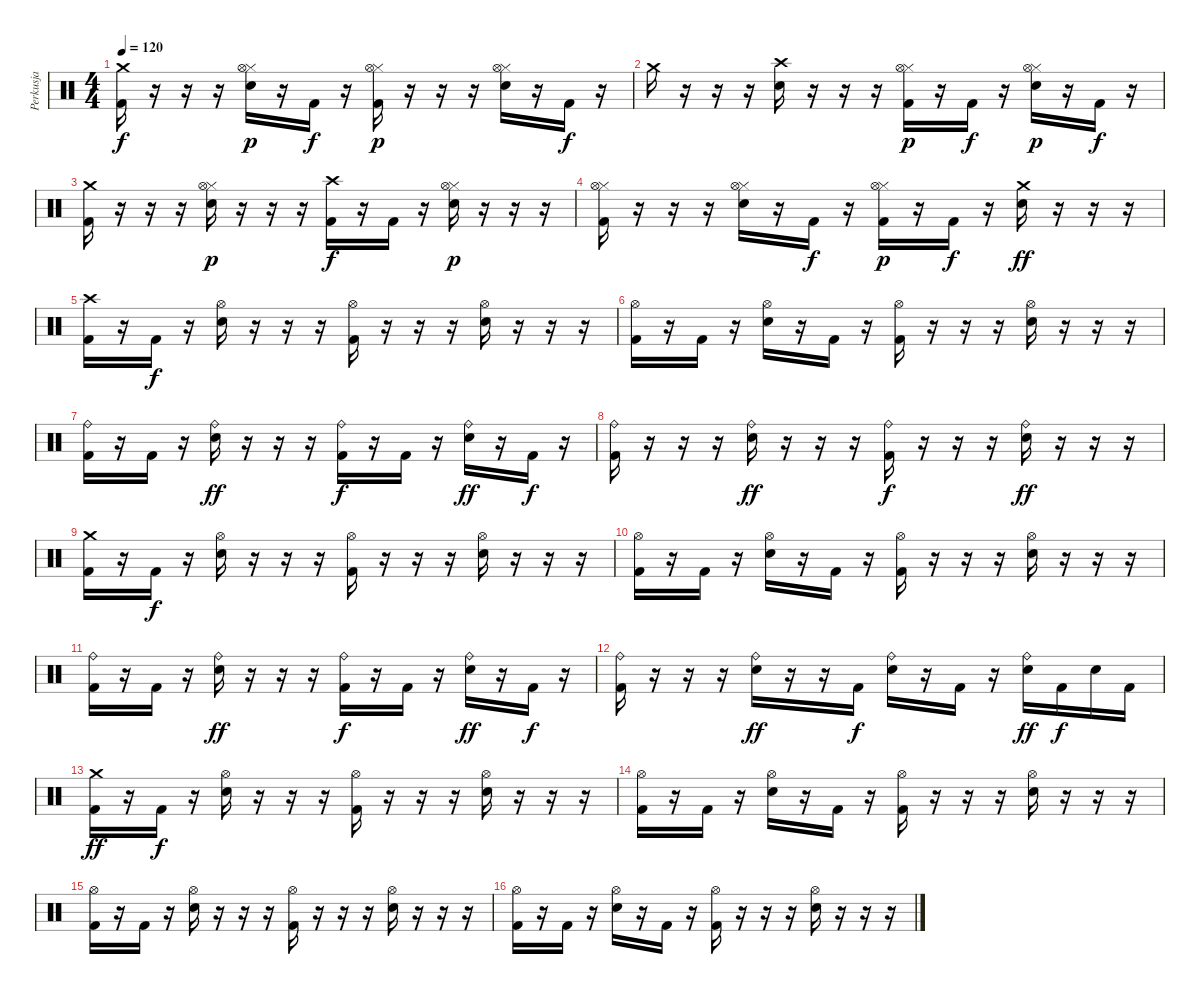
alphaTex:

\track ("Perkusja" "Perkusja") {instrument percussion}
\staff {score}
\articulation defaults
\ts (4 4)
\tempo 120
\clef neutral
\ks c
("Kick (hit) 2" "Crash medium (hit)").16{dy f} r.16 r.16 r.16 ("Electric Snare (hit)" "Hi-Hat (closed)" "Hi-Hat (open)").16{dy p} r.16 "Kick (hit) 2".16{dy f} r.16 ("Kick (hit) 2" "Hi-Hat (closed)" "Hi-Hat (open)").16{dy p} r.16 r.16 r.16 ("Electric Snare (hit)" "Hi-Hat (closed)" "Hi-Hat (open)").16 r.16 "Kick (hit) 2".16{dy f} r.16 |
"Crash medium (hit)".16 r.16 r.16 r.16 ("Electric Snare (hit)" "Crash high (hit)").16 r.16 r.16 r.16 ("Kick (hit) 2" "Hi-Hat (closed)" "Hi-Hat (open)").16{dy p} r.16 "Kick (hit) 2".16{dy f} r.16 ("Electric Snare (hit)" "Hi-Hat (closed)" "Hi-Hat (open)").16{dy p} r.16 "Kick (hit) 2".16{dy f} r.16 |
("Kick (hit) 2" "Crash medium (hit)").16 r.16 r.16 r.16 ("Electric Snare (hit)" "Hi-Hat (closed)" "Hi-Hat (open)").16{dy p} r.16 r.16 r.16 ("Kick (hit) 2" "Crash high (hit)").16{dy f} r.16 "Kick (hit) 2".16 r.16 ("Electric Snare (hit)" "Hi-Hat (closed)" "Hi-Hat (open)").16{dy p} r.16 r.16 r.16 |
("Kick (hit) 2" "Hi-Hat (closed)" "Hi-Hat (open)").16 r.16 r.16 r.16 ("Electric Snare (hit)" "Hi-Hat (closed)" "Hi-Hat (open)").16 r.16 "Kick (hit) 2".16{dy f} r.16 ("Kick (hit) 2" "Hi-Hat (closed)" "Hi-Hat (open)").16{dy p} r.16 "Kick (hit) 2".16{dy f} r.16 ("Electric Snare (hit)" "Crash medium (hit)").16{dy ff} r.16 r.16 r.16 |
("Kick (hit) 2" "Crash high (hit)").16 r.16 "Kick (hit) 2".16{dy f} r.16 ("Electric Snare (hit)" "Hi-Hat (open)").16 r.16 r.16 r.16 ("Kick (hit) 2" "Hi-Hat (open)").16 r.16 r.16 r.16 ("Electric Snare (hit)" "Hi-Hat (open)").16 r.16 r.16 r.16 |
("Kick (hit) 2" "Hi-Hat (open)").16 r.16 "Kick (hit) 2".16 r.16 ("Electric Snare (hit)" "Hi-Hat (open)").16 r.16 "Kick (hit) 2".16 r.16 ("Kick (hit) 2" "Hi-Hat (open)").16 r.16 r.16 r.16 ("Electric Snare (hit)" "Hi-Hat (open)").16 r.16 r.16 r.16 |
("Kick (hit) 2" "Ride (bell)").16 r.16 "Kick (hit) 2".16 r.16 ("Electric Snare (hit)" "Ride (bell)").16{dy ff} r.16 r.16 r.16 ("Kick (hit) 2" "Ride (bell)").16{dy f} r.16 "Kick (hit) 2".16 r.16 ("Electric Snare (hit)" "Ride (bell)").16{dy ff} r.16 "Kick (hit) 2".16{dy f} r.16 |
("Kick (hit) 2" "Ride (bell)").16 r.16 r.16 r.16 ("Electric Snare (hit)" "Ride (bell)").16{dy ff} r.16 r.16 r.16 ("Kick (hit) 2" "Ride (bell)").16{dy f} r.16 r.16 r.16 ("Electric Snare (hit)" "Ride (bell)").16{dy ff} r.16 r.16 r.16 |
("Kick (hit) 2" "Crash medium (hit)").16 r.16 "Kick (hit) 2".16{dy f} r.16 ("Electric Snare (hit)" "Hi-Hat (open)").16 r.16 r.16 r.16 ("Kick (hit) 2" "Hi-Hat (open)").16 r.16 r.16 r.16 ("Electric Snare (hit)" "Hi-Hat (open)").16 r.16 r.16 r.16 |
("Kick (hit) 2" "Hi-Hat (open)").16 r.16 "Kick (hit) 2".16 r.16 ("Electric Snare (hit)" "Hi-Hat (open)").16 r.16 "Kick (hit) 2".16 r.16 ("Kick (hit) 2" "Hi-Hat (open)").16 r.16 r.16 r.16 ("Electric Snare (hit)" "Hi-Hat (open)").16 r.16 r.16 r.16 |
("Kick (hit) 2" "Ride (bell)").16 r.16 "Kick (hit) 2".16 r.16 ("Electric Snare (hit)" "Ride (bell)").16{dy ff} r.16 r.16 r.16 ("Kick (hit) 2" "Ride (bell)").16{dy f} r.16 "Kick (hit) 2".16 r.16 ("Electric Snare (hit)" "Ride (bell)").16{dy ff} r.16 "Kick (hit) 2".16{dy f} r.16 |
("Kick (hit) 2" "Ride (bell)").16 r.16 r.16 r.16 ("Electric Snare (hit)" "Ride (bell)").16{dy ff} r.16 r.16 "Kick (hit) 2".16{dy f} ("Electric Snare (hit)" "Ride (bell)").16 r.16 "Kick (hit) 2".16 r.16 ("Electric Snare (hit)" "Ride (bell)").16{dy ff} "Kick (hit) 2".16{dy f} "Electric Snare (hit)".16 "Kick (hit) 2".16 |
("Kick (hit) 2" "Crash medium (hit)").16{dy ff} r.16 "Kick (hit) 2".16{dy f} r.16 ("Electric Snare (hit)" "Hi-Hat (open)").16 r.16 r.16 r.16 ("Kick (hit) 2" "Hi-Hat (open)").16 r.16 r.16 r.16 ("Electric Snare (hit)" "Hi-Hat (open)").16 r.16 r.16 r.16 |
("Kick (hit) 2" "Hi-Hat (open)").16 r.16 "Kick (hit) 2".16 r.16 ("Electric Snare (hit)" "Hi-Hat (open)").16 r.16 "Kick (hit) 2".16 r.16 ("Kick (hit) 2" "Hi-Hat (open)").16 r.16 r.16 r.16 ("Electric Snare (hit)" "Hi-Hat (open)").16 r.16 r.16 r.16 |
("Kick (hit) 2" "Hi-Hat (open)").16 r.16 "Kick (hit) 2".16 r.16 ("Electric Snare (hit)" "Hi-Hat (open)").16 r.16 r.16 r.16 ("Kick (hit) 2" "Hi-Hat (open)").16 r.16 r.16 r.16 ("Electric Snare (hit)" "Hi-Hat (open)").16 r.16 r.16 r.16 |
("Kick (hit) 2" "Hi-Hat (open)").16 r.16 "Kick (hit) 2".16 r.16 ("Electric Snare (hit)" "Hi-Hat (open)").16 r.16 "Kick (hit) 2".16 r.16 ("Kick (hit) 2" "Hi-Hat (open)").16 r.16 r.16 r.16 ("Electric Snare (hit)" "Hi-Hat (open)").16 r.16 r.16 r.16
